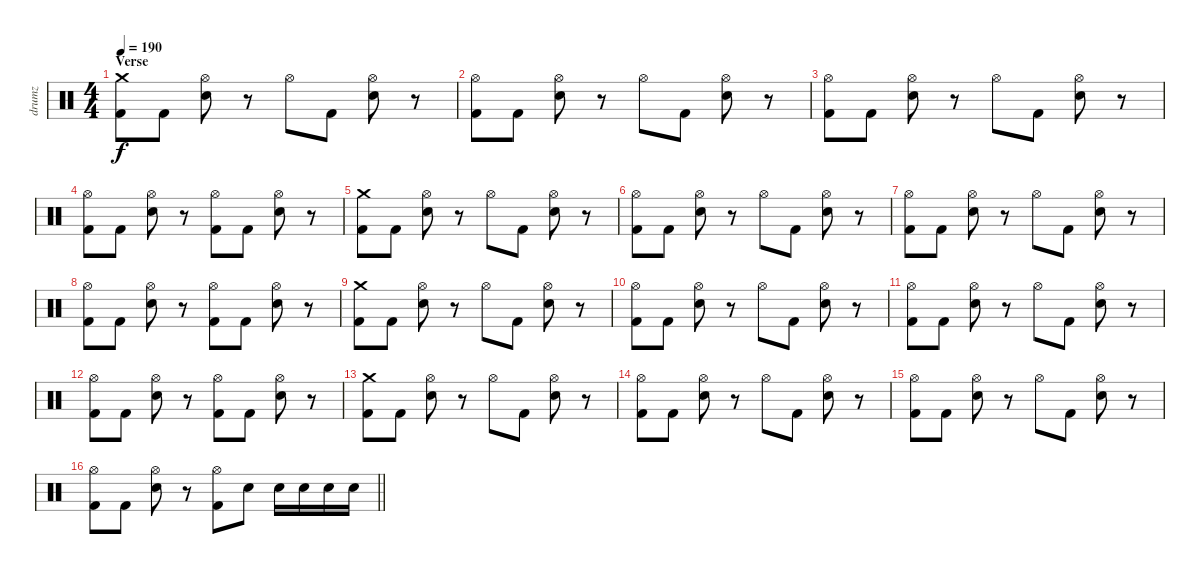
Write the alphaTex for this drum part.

\track ("drumz" "drumz") {instrument percussion}
\staff {score}
\articulation defaults
\ts (4 4)
\section ("" "Verse")
\tempo 190
\clef neutral
\ks c
("Crash medium (hit)" "Kick (hit) 2").8{dy f} "Kick (hit) 2".8 ("Hi-Hat (open)" "Electric Snare (hit)").8 r.8 "Hi-Hat (open)".8 "Kick (hit) 2".8 ("Hi-Hat (open)" "Electric Snare (hit)").8 r.8 |
("Hi-Hat (open)" "Kick (hit) 2").8 "Kick (hit) 2".8 ("Hi-Hat (open)" "Electric Snare (hit)").8 r.8 "Hi-Hat (open)".8 "Kick (hit) 2".8 ("Hi-Hat (open)" "Electric Snare (hit)").8 r.8 |
("Hi-Hat (open)" "Kick (hit) 2").8 "Kick (hit) 2".8 ("Hi-Hat (open)" "Electric Snare (hit)").8 r.8 "Hi-Hat (open)".8 "Kick (hit) 2".8 ("Hi-Hat (open)" "Electric Snare (hit)").8 r.8 |
("Hi-Hat (open)" "Kick (hit) 2").8 "Kick (hit) 2".8 ("Hi-Hat (open)" "Electric Snare (hit)").8 r.8 ("Hi-Hat (open)" "Kick (hit) 2").8 "Kick (hit) 2".8 ("Hi-Hat (open)" "Electric Snare (hit)").8 r.8 |
("Crash medium (hit)" "Kick (hit) 2").8 "Kick (hit) 2".8 ("Hi-Hat (open)" "Electric Snare (hit)").8 r.8 "Hi-Hat (open)".8 "Kick (hit) 2".8 ("Hi-Hat (open)" "Electric Snare (hit)").8 r.8 |
("Hi-Hat (open)" "Kick (hit) 2").8 "Kick (hit) 2".8 ("Hi-Hat (open)" "Electric Snare (hit)").8 r.8 "Hi-Hat (open)".8 "Kick (hit) 2".8 ("Hi-Hat (open)" "Electric Snare (hit)").8 r.8 |
("Hi-Hat (open)" "Kick (hit) 2").8 "Kick (hit) 2".8 ("Hi-Hat (open)" "Electric Snare (hit)").8 r.8 "Hi-Hat (open)".8 "Kick (hit) 2".8 ("Hi-Hat (open)" "Electric Snare (hit)").8 r.8 |
("Hi-Hat (open)" "Kick (hit) 2").8 "Kick (hit) 2".8 ("Hi-Hat (open)" "Electric Snare (hit)").8 r.8 ("Hi-Hat (open)" "Kick (hit) 2").8 "Kick (hit) 2".8 ("Hi-Hat (open)" "Electric Snare (hit)").8 r.8 |
("Crash medium (hit)" "Kick (hit) 2").8 "Kick (hit) 2".8 ("Hi-Hat (open)" "Electric Snare (hit)").8 r.8 "Hi-Hat (open)".8 "Kick (hit) 2".8 ("Hi-Hat (open)" "Electric Snare (hit)").8 r.8 |
("Hi-Hat (open)" "Kick (hit) 2").8 "Kick (hit) 2".8 ("Hi-Hat (open)" "Electric Snare (hit)").8 r.8 "Hi-Hat (open)".8 "Kick (hit) 2".8 ("Hi-Hat (open)" "Electric Snare (hit)").8 r.8 |
("Hi-Hat (open)" "Kick (hit) 2").8 "Kick (hit) 2".8 ("Hi-Hat (open)" "Electric Snare (hit)").8 r.8 "Hi-Hat (open)".8 "Kick (hit) 2".8 ("Hi-Hat (open)" "Electric Snare (hit)").8 r.8 |
("Hi-Hat (open)" "Kick (hit) 2").8 "Kick (hit) 2".8 ("Hi-Hat (open)" "Electric Snare (hit)").8 r.8 ("Hi-Hat (open)" "Kick (hit) 2").8 "Kick (hit) 2".8 ("Hi-Hat (open)" "Electric Snare (hit)").8 r.8 |
("Crash medium (hit)" "Kick (hit) 2").8 "Kick (hit) 2".8 ("Hi-Hat (open)" "Electric Snare (hit)").8 r.8 "Hi-Hat (open)".8 "Kick (hit) 2".8 ("Hi-Hat (open)" "Electric Snare (hit)").8 r.8 |
("Hi-Hat (open)" "Kick (hit) 2").8 "Kick (hit) 2".8 ("Hi-Hat (open)" "Electric Snare (hit)").8 r.8 "Hi-Hat (open)".8 "Kick (hit) 2".8 ("Hi-Hat (open)" "Electric Snare (hit)").8 r.8 |
("Hi-Hat (open)" "Kick (hit) 2").8 "Kick (hit) 2".8 ("Hi-Hat (open)" "Electric Snare (hit)").8 r.8 "Hi-Hat (open)".8 "Kick (hit) 2".8 ("Hi-Hat (open)" "Electric Snare (hit)").8 r.8 |
\barLineRight lightlight
("Hi-Hat (open)" "Kick (hit) 2").8 "Kick (hit) 2".8 ("Hi-Hat (open)" "Electric Snare (hit)").8 r.8 ("Hi-Hat (open)" "Kick (hit) 2").8 "Electric Snare (hit)".8 "Electric Snare (hit)".16 "Electric Snare (hit)".16 "Electric Snare (hit)".16 "Electric Snare (hit)".16
